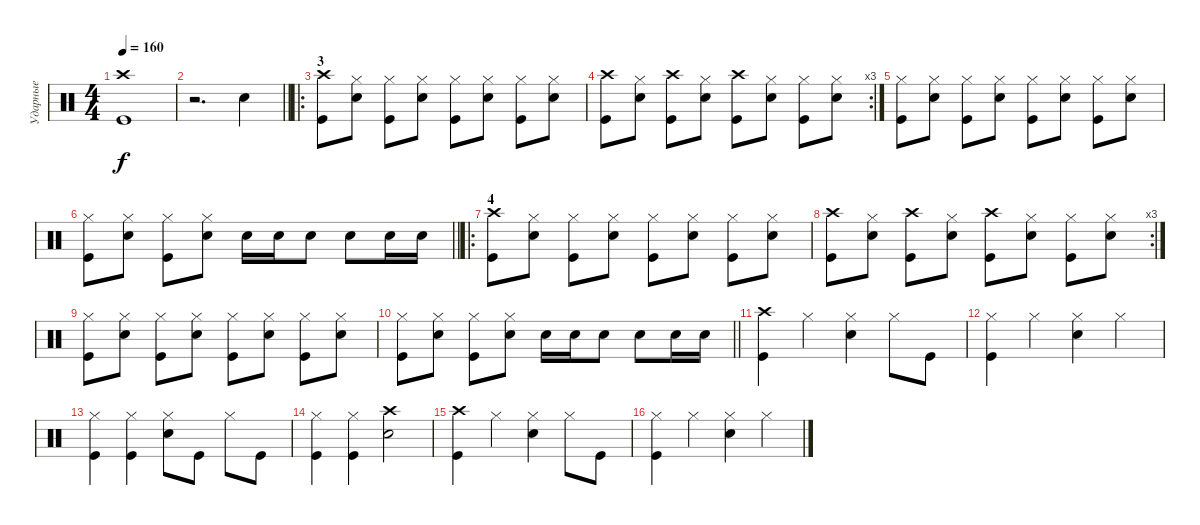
\track ("Ударные" "Ударные") {instrument percussion}
\staff {score}
\articulation defaults
\ts (4 4)
\tempo 160
\clef neutral
\ks c
("Crash high (hit)"{t} "Kick (hit)"{t}).1{dy f} |
\barLineRight lightlight
r.2{d} "Snare (hit) 2".4 |
\ro
\section ("" "3")
("Crash high (hit)" "Kick (hit)").8 ("Hi-Hat (closed)" "Snare (hit) 2").8 ("Hi-Hat (closed)" "Kick (hit)").8 ("Hi-Hat (closed)" "Snare (hit) 2").8 ("Hi-Hat (closed)" "Kick (hit)").8 ("Hi-Hat (closed)" "Snare (hit) 2").8 ("Hi-Hat (closed)" "Kick (hit)").8 ("Hi-Hat (closed)" "Snare (hit) 2").8 |
\rc 3
("Crash high (hit)" "Kick (hit)").8 ("Hi-Hat (closed)" "Snare (hit) 2").8 ("Crash high (hit)" "Kick (hit)").8 ("Hi-Hat (closed)" "Snare (hit) 2").8 ("Crash high (hit)" "Kick (hit)").8 ("Hi-Hat (closed)" "Snare (hit) 2").8 ("Hi-Hat (closed)" "Kick (hit)").8 ("Hi-Hat (closed)" "Snare (hit) 2").8 |
("Hi-Hat (closed)" "Kick (hit)").8 ("Hi-Hat (closed)" "Snare (hit) 2").8 ("Hi-Hat (closed)" "Kick (hit)").8 ("Hi-Hat (closed)" "Snare (hit) 2").8 ("Hi-Hat (closed)" "Kick (hit)").8 ("Hi-Hat (closed)" "Snare (hit) 2").8 ("Hi-Hat (closed)" "Kick (hit)").8 ("Hi-Hat (closed)" "Snare (hit) 2").8 |
\barLineRight lightlight
("Hi-Hat (closed)" "Kick (hit)").8 ("Hi-Hat (closed)" "Snare (hit) 2").8 ("Hi-Hat (closed)" "Kick (hit)").8 ("Hi-Hat (closed)" "Snare (hit) 2").8 "Snare (hit) 2".16 "Snare (hit) 2".16 "Snare (hit) 2".8 "Snare (hit) 2".8 "Snare (hit) 2".16 "Snare (hit) 2".16 |
\ro
\section ("" "4")
("Crash high (hit)" "Kick (hit)").8 ("Hi-Hat (closed)" "Snare (hit) 2").8 ("Hi-Hat (closed)" "Kick (hit)").8 ("Hi-Hat (closed)" "Snare (hit) 2").8 ("Hi-Hat (closed)" "Kick (hit)").8 ("Hi-Hat (closed)" "Snare (hit) 2").8 ("Hi-Hat (closed)" "Kick (hit)").8 ("Hi-Hat (closed)" "Snare (hit) 2").8 |
\rc 3
("Crash high (hit)" "Kick (hit)").8 ("Hi-Hat (closed)" "Snare (hit) 2").8 ("Crash high (hit)" "Kick (hit)").8 ("Hi-Hat (closed)" "Snare (hit) 2").8 ("Crash high (hit)" "Kick (hit)").8 ("Hi-Hat (closed)" "Snare (hit) 2").8 ("Hi-Hat (closed)" "Kick (hit)").8 ("Hi-Hat (closed)" "Snare (hit) 2").8 |
("Hi-Hat (closed)" "Kick (hit)").8 ("Hi-Hat (closed)" "Snare (hit) 2").8 ("Hi-Hat (closed)" "Kick (hit)").8 ("Hi-Hat (closed)" "Snare (hit) 2").8 ("Hi-Hat (closed)" "Kick (hit)").8 ("Hi-Hat (closed)" "Snare (hit) 2").8 ("Hi-Hat (closed)" "Kick (hit)").8 ("Hi-Hat (closed)" "Snare (hit) 2").8 |
\barLineRight lightlight
("Hi-Hat (closed)" "Kick (hit)").8 ("Hi-Hat (closed)" "Snare (hit) 2").8 ("Hi-Hat (closed)" "Kick (hit)").8 ("Hi-Hat (closed)" "Snare (hit) 2").8 "Snare (hit) 2".16 "Snare (hit) 2".16 "Snare (hit) 2".8 "Snare (hit) 2".8 "Snare (hit) 2".16 "Snare (hit) 2".16 |
("Kick (hit)" "Crash high (hit)").4 "Hi-Hat (closed)".4 ("Hi-Hat (closed)" "Snare (hit) 2").4 "Hi-Hat (closed)".8 "Kick (hit)".8 |
("Kick (hit)" "Hi-Hat (closed)").4 "Hi-Hat (closed)".4 ("Hi-Hat (closed)" "Snare (hit) 2").4 "Hi-Hat (closed)".4 |
("Hi-Hat (closed)" "Kick (hit)").4 ("Hi-Hat (closed)" "Kick (hit)").4 ("Hi-Hat (closed)" "Snare (hit) 2").8 "Kick (hit)".8 "Hi-Hat (closed)".8 "Kick (hit)".8 |
("Hi-Hat (closed)" "Kick (hit)").4 ("Hi-Hat (closed)" "Kick (hit)").4 ("Crash high (hit)" "Snare (hit) 2").2 |
("Kick (hit)" "Crash high (hit)").4 "Hi-Hat (closed)".4 ("Hi-Hat (closed)" "Snare (hit) 2").4 "Hi-Hat (closed)".8 "Kick (hit)".8 |
("Kick (hit)" "Hi-Hat (closed)").4 "Hi-Hat (closed)".4 ("Hi-Hat (closed)" "Snare (hit) 2").4 "Hi-Hat (closed)".4
